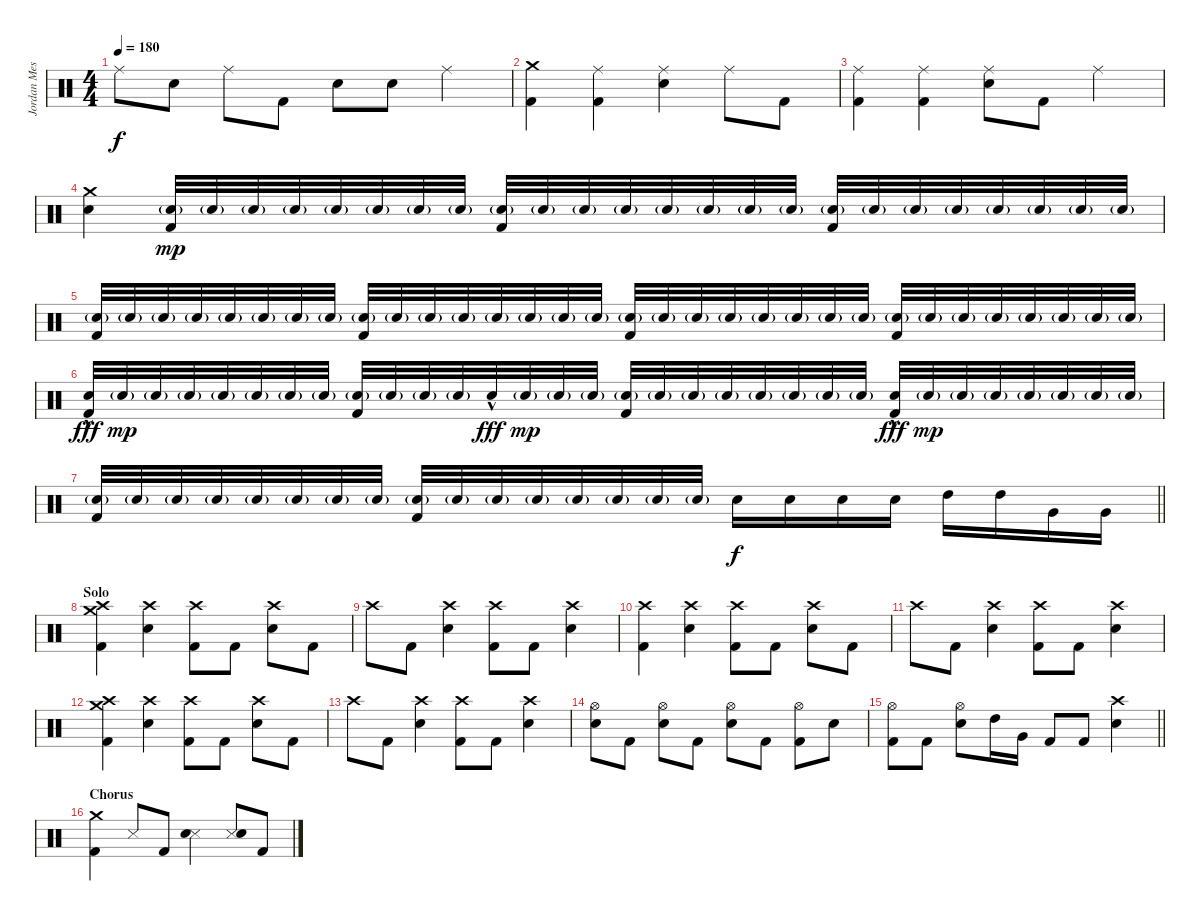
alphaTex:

\track ("Jordan Messer " "Jordan Mes") {instrument percussion}
\staff {score}
\articulation defaults
\ts (4 4)
\tempo 180
\clef neutral
\ks c "Ride (middle)".8{dy f} "Snare (hit) 2".8 "Ride (middle)".8 "Kick (hit) 2".8 "Snare (hit) 2".8 "Snare (hit) 2".8 "Ride (middle)".4
|
("Crash medium (hit)" "Kick (hit) 2").4 ("Ride (middle)" "Kick (hit) 2").4 ("Ride (middle)" "Snare (hit) 2").4 "Ride (middle)".8 "Kick (hit) 2".8 |
("Ride (middle)" "Kick (hit) 2").4 ("Ride (middle)" "Kick (hit) 2").4 ("Ride (middle)" "Snare (hit) 2").8 "Kick (hit) 2".8 "Ride (middle)".4 |
("Crash medium (hit)" "Snare (hit) 2").4 ("Electric Snare (hit)"{g} "Kick (hit) 2").32{dy mp} "Electric Snare (hit)"{g}.32 "Electric Snare (hit)"{g}.32 "Electric Snare (hit)"{g}.32 "Electric Snare (hit)"{g}.32 "Electric Snare (hit)"{g}.32 "Electric Snare (hit)"{g}.32 "Electric Snare (hit)"{g}.32 ("Electric Snare (hit)"{g} "Kick (hit) 2").32 "Electric Snare (hit)"{g}.32 "Electric Snare (hit)"{g}.32 "Electric Snare (hit)"{g}.32 "Electric Snare (hit)"{g}.32 "Electric Snare (hit)"{g}.32 "Electric Snare (hit)"{g}.32 "Electric Snare (hit)"{g}.32 ("Electric Snare (hit)"{g} "Kick (hit) 2").32 "Electric Snare (hit)"{g}.32 "Electric Snare (hit)"{g}.32 "Electric Snare (hit)"{g}.32 "Electric Snare (hit)"{g}.32 "Electric Snare (hit)"{g}.32 "Electric Snare (hit)"{g}.32 "Electric Snare (hit)"{g}.32 |
("Electric Snare (hit)"{g} "Kick (hit) 2").32 "Electric Snare (hit)"{g}.32 "Electric Snare (hit)"{g}.32 "Electric Snare (hit)"{g}.32 "Electric Snare (hit)"{g}.32 "Electric Snare (hit)"{g}.32 "Electric Snare (hit)"{g}.32 "Electric Snare (hit)"{g}.32 ("Electric Snare (hit)"{g} "Kick (hit) 2").32 "Electric Snare (hit)"{g}.32 "Electric Snare (hit)"{g}.32 "Electric Snare (hit)"{g}.32 "Electric Snare (hit)"{g}.32 "Electric Snare (hit)"{g}.32 "Electric Snare (hit)"{g}.32 "Electric Snare (hit)"{g}.32 ("Electric Snare (hit)"{g} "Kick (hit) 2").32 "Electric Snare (hit)"{g}.32 "Electric Snare (hit)"{g}.32 "Electric Snare (hit)"{g}.32 "Electric Snare (hit)"{g}.32 "Electric Snare (hit)"{g}.32 "Electric Snare (hit)"{g}.32 "Electric Snare (hit)"{g}.32 ("Electric Snare (hit)"{g} "Kick (hit) 2").32 "Electric Snare (hit)"{g}.32 "Electric Snare (hit)"{g}.32 "Electric Snare (hit)"{g}.32 "Electric Snare (hit)"{g}.32 "Electric Snare (hit)"{g}.32 "Electric Snare (hit)"{g}.32 "Electric Snare (hit)"{g}.32 |
("Electric Snare (hit)"{hac} "Kick (hit) 2").32{dy fff} "Electric Snare (hit)"{g}.32{dy mp} "Electric Snare (hit)"{g}.32 "Electric Snare (hit)"{g}.32 "Electric Snare (hit)"{g}.32 "Electric Snare (hit)"{g}.32 "Electric Snare (hit)"{g}.32 "Electric Snare (hit)"{g}.32 ("Electric Snare (hit)"{g} "Kick (hit) 2").32 "Electric Snare (hit)"{g}.32 "Electric Snare (hit)"{g}.32 "Electric Snare (hit)"{g}.32 "Electric Snare (hit)"{hac}.32{dy fff} "Electric Snare (hit)"{g}.32{dy mp} "Electric Snare (hit)"{g}.32 "Electric Snare (hit)"{g}.32 ("Electric Snare (hit)"{g} "Kick (hit) 2").32 "Electric Snare (hit)"{g}.32 "Electric Snare (hit)"{g}.32 "Electric Snare (hit)"{g}.32 "Electric Snare (hit)"{g}.32 "Electric Snare (hit)"{g}.32 "Electric Snare (hit)"{g}.32 "Electric Snare (hit)"{g}.32 ("Electric Snare (hit)"{hac} "Kick (hit) 2").32{dy fff} "Electric Snare (hit)"{g}.32{dy mp} "Electric Snare (hit)"{g}.32 "Electric Snare (hit)"{g}.32 "Electric Snare (hit)"{g}.32 "Electric Snare (hit)"{g}.32 "Electric Snare (hit)"{g}.32 "Electric Snare (hit)"{g}.32 |
\barLineRight lightlight
("Electric Snare (hit)"{g} "Kick (hit) 2").32 "Electric Snare (hit)"{g}.32 "Electric Snare (hit)"{g}.32 "Electric Snare (hit)"{g}.32 "Electric Snare (hit)"{g}.32 "Electric Snare (hit)"{g}.32 "Electric Snare (hit)"{g}.32 "Electric Snare (hit)"{g}.32 ("Electric Snare (hit)"{g} "Kick (hit) 2").32 "Electric Snare (hit)"{g}.32 "Electric Snare (hit)"{g}.32 "Electric Snare (hit)"{g}.32 "Electric Snare (hit)"{g}.32 "Electric Snare (hit)"{g}.32 "Electric Snare (hit)"{g}.32 "Electric Snare (hit)"{g}.32 "Snare (hit) 2".16{dy f} "Snare (hit) 2".16 "Snare (hit) 2".16 "Snare (hit) 2".16 "High Tom (hit)".16 "High Tom (hit)".16 "Very Low Tom (hit)".16 "Very Low Tom (hit)".16 |
\section ("" "Solo")
("Crash medium (hit)" "Crash high (hit)" "Kick (hit) 2").4 ("Crash high (hit)" "Snare (hit) 2").4 ("Crash high (hit)" "Kick (hit) 2").8 "Kick (hit) 2".8 ("Crash high (hit)" "Snare (hit) 2").8 "Kick (hit) 2".8 |
"Crash high (hit)".8 "Kick (hit) 2".8 ("Crash high (hit)" "Snare (hit) 2").4 ("Crash high (hit)" "Kick (hit) 2").8 "Kick (hit) 2".8 ("Crash high (hit)" "Snare (hit) 2").4 |
("Crash high (hit)" "Kick (hit) 2").4 ("Crash high (hit)" "Snare (hit) 2").4 ("Crash high (hit)" "Kick (hit) 2").8 "Kick (hit) 2".8 ("Crash high (hit)" "Snare (hit) 2").8 "Kick (hit) 2".8 |
"Crash high (hit)".8 "Kick (hit) 2".8 ("Crash high (hit)" "Snare (hit) 2").4 ("Crash high (hit)" "Kick (hit) 2").8 "Kick (hit) 2".8 ("Crash high (hit)" "Snare (hit) 2").4 |
("Crash medium (hit)" "Crash high (hit)" "Kick (hit) 2").4 ("Crash high (hit)" "Snare (hit) 2").4 ("Crash high (hit)" "Kick (hit) 2").8 "Kick (hit) 2".8 ("Crash high (hit)" "Snare (hit) 2").8 "Kick (hit) 2".8 |
"Crash high (hit)".8 "Kick (hit) 2".8 ("Crash high (hit)" "Snare (hit) 2").4 ("Crash high (hit)" "Kick (hit) 2").8 "Kick (hit) 2".8 ("Crash high (hit)" "Snare (hit) 2").4 |
("Hi-Hat (open)" "Snare (hit) 2").8 "Kick (hit) 2".8 ("Hi-Hat (open)" "Snare (hit) 2").8 "Kick (hit) 2".8 ("Hi-Hat (open)" "Snare (hit) 2").8 "Kick (hit) 2".8 ("Hi-Hat (open)" "Kick (hit) 2").8 "Snare (hit) 2".8 |
\barLineRight lightlight
("Hi-Hat (open)" "Kick (hit) 2").8 "Kick (hit) 2".8 ("Hi-Hat (open)" "Snare (hit) 2").8 "High Tom (hit)".16 "Very Low Tom (hit)".16 "Kick (hit) 2".8 "Kick (hit) 2".8 ("Crash high (hit)" "Snare (hit) 2").4 |
\section ("" "Chorus")
("Crash medium (hit)" "Kick (hit) 2").4 "Snare (side stick) 3".8 "Kick (hit) 2".8 ("Snare (side stick) 3" "Snare (hit) 2").4 ("Snare (side stick) 3" "Snare (hit) 2").8 "Kick (hit) 2".8
